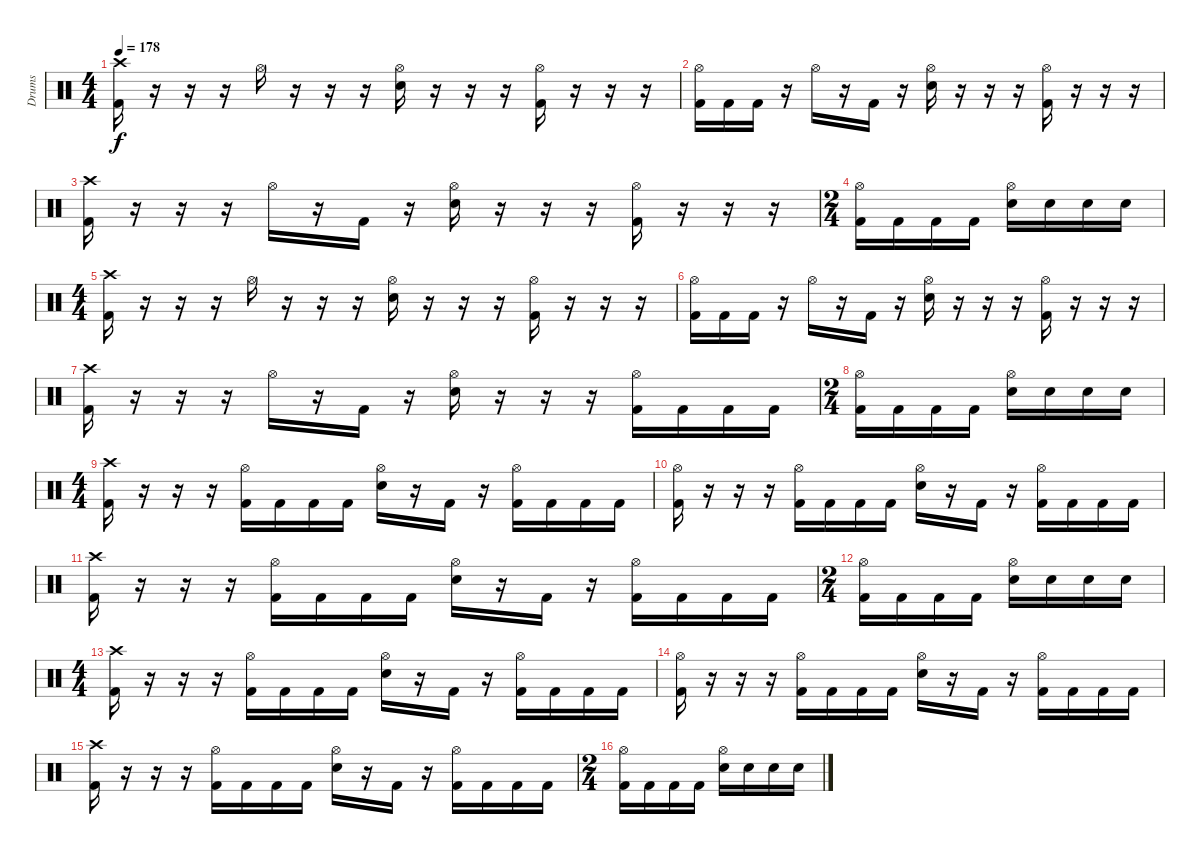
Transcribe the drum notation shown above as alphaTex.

\track ("Drums" "Drums") {instrument percussion}
\staff {score}
\articulation defaults
\ts (4 4)
\tempo 178
\clef neutral
\ks c
("Crash high (hit)" "Kick (hit) 2").16{dy f} r.16 r.16 r.16 "Hi-Hat (open)".16 r.16 r.16 r.16 ("Hi-Hat (open)" "Electric Snare (hit)").16 r.16 r.16 r.16 ("Hi-Hat (open)" "Kick (hit) 2").16 r.16 r.16 r.16 |
("Hi-Hat (open)" "Kick (hit) 2").16 "Kick (hit) 2".16 "Kick (hit) 2".16 r.16 "Hi-Hat (open)".16 r.16 "Kick (hit) 2".16 r.16 ("Hi-Hat (open)" "Electric Snare (hit)").16 r.16 r.16 r.16 ("Hi-Hat (open)" "Kick (hit) 2").16 r.16 r.16 r.16 |
("Crash high (hit)" "Kick (hit) 2").16 r.16 r.16 r.16 "Hi-Hat (open)".16 r.16 "Kick (hit) 2".16 r.16 ("Hi-Hat (open)" "Electric Snare (hit)").16 r.16 r.16 r.16 ("Hi-Hat (open)" "Kick (hit) 2").16 r.16 r.16 r.16 |
\ts (2 4)
("Hi-Hat (open)" "Kick (hit) 2").16 "Kick (hit) 2".16 "Kick (hit) 2".16 "Kick (hit) 2".16 ("Hi-Hat (open)" "Electric Snare (hit)").16 "Electric Snare (hit)".16 "Electric Snare (hit)".16 "Electric Snare (hit)".16 |
\ts (4 4)
("Crash high (hit)" "Kick (hit) 2").16 r.16 r.16 r.16 "Hi-Hat (open)".16 r.16 r.16 r.16 ("Hi-Hat (open)" "Electric Snare (hit)").16 r.16 r.16 r.16 ("Hi-Hat (open)" "Kick (hit) 2").16 r.16 r.16 r.16 |
("Hi-Hat (open)" "Kick (hit) 2").16 "Kick (hit) 2".16 "Kick (hit) 2".16 r.16 "Hi-Hat (open)".16 r.16 "Kick (hit) 2".16 r.16 ("Hi-Hat (open)" "Electric Snare (hit)").16 r.16 r.16 r.16 ("Hi-Hat (open)" "Kick (hit) 2").16 r.16 r.16 r.16 |
("Crash high (hit)" "Kick (hit) 2").16 r.16 r.16 r.16 "Hi-Hat (open)".16 r.16 "Kick (hit) 2".16 r.16 ("Hi-Hat (open)" "Electric Snare (hit)").16 r.16 r.16 r.16 ("Hi-Hat (open)" "Kick (hit) 2").16 "Kick (hit) 2".16 "Kick (hit) 2".16 "Kick (hit) 2".16 |
\ts (2 4)
("Hi-Hat (open)" "Kick (hit) 2").16 "Kick (hit) 2".16 "Kick (hit) 2".16 "Kick (hit) 2".16 ("Hi-Hat (open)" "Electric Snare (hit)").16 "Electric Snare (hit)".16 "Electric Snare (hit)".16 "Electric Snare (hit)".16 |
\ts (4 4)
("Crash high (hit)" "Kick (hit) 2").16 r.16 r.16 r.16 ("Hi-Hat (open)" "Kick (hit) 2").16 "Kick (hit) 2".16 "Kick (hit) 2".16 "Kick (hit) 2".16 ("Hi-Hat (open)" "Electric Snare (hit)").16 r.16 "Kick (hit) 2".16 r.16 ("Hi-Hat (open)" "Kick (hit) 2").16 "Kick (hit) 2".16 "Kick (hit) 2".16 "Kick (hit) 2".16 |
("Hi-Hat (open)" "Kick (hit) 2").16 r.16 r.16 r.16 ("Hi-Hat (open)" "Kick (hit) 2").16 "Kick (hit) 2".16 "Kick (hit) 2".16 "Kick (hit) 2".16 ("Hi-Hat (open)" "Electric Snare (hit)").16 r.16 "Kick (hit) 2".16 r.16 ("Hi-Hat (open)" "Kick (hit) 2").16 "Kick (hit) 2".16 "Kick (hit) 2".16 "Kick (hit) 2".16 |
("Crash high (hit)" "Kick (hit) 2").16 r.16 r.16 r.16 ("Hi-Hat (open)" "Kick (hit) 2").16 "Kick (hit) 2".16 "Kick (hit) 2".16 "Kick (hit) 2".16 ("Hi-Hat (open)" "Electric Snare (hit)").16 r.16 "Kick (hit) 2".16 r.16 ("Hi-Hat (open)" "Kick (hit) 2").16 "Kick (hit) 2".16 "Kick (hit) 2".16 "Kick (hit) 2".16 |
\ts (2 4)
("Hi-Hat (open)" "Kick (hit) 2").16 "Kick (hit) 2".16 "Kick (hit) 2".16 "Kick (hit) 2".16 ("Hi-Hat (open)" "Electric Snare (hit)").16 "Electric Snare (hit)".16 "Electric Snare (hit)".16 "Electric Snare (hit)".16 |
\ts (4 4)
("Crash high (hit)" "Kick (hit) 2").16 r.16 r.16 r.16 ("Hi-Hat (open)" "Kick (hit) 2").16 "Kick (hit) 2".16 "Kick (hit) 2".16 "Kick (hit) 2".16 ("Hi-Hat (open)" "Electric Snare (hit)").16 r.16 "Kick (hit) 2".16 r.16 ("Hi-Hat (open)" "Kick (hit) 2").16 "Kick (hit) 2".16 "Kick (hit) 2".16 "Kick (hit) 2".16 |
("Hi-Hat (open)" "Kick (hit) 2").16 r.16 r.16 r.16 ("Hi-Hat (open)" "Kick (hit) 2").16 "Kick (hit) 2".16 "Kick (hit) 2".16 "Kick (hit) 2".16 ("Hi-Hat (open)" "Electric Snare (hit)").16 r.16 "Kick (hit) 2".16 r.16 ("Hi-Hat (open)" "Kick (hit) 2").16 "Kick (hit) 2".16 "Kick (hit) 2".16 "Kick (hit) 2".16 |
("Crash high (hit)" "Kick (hit) 2").16 r.16 r.16 r.16 ("Hi-Hat (open)" "Kick (hit) 2").16 "Kick (hit) 2".16 "Kick (hit) 2".16 "Kick (hit) 2".16 ("Hi-Hat (open)" "Electric Snare (hit)").16 r.16 "Kick (hit) 2".16 r.16 ("Hi-Hat (open)" "Kick (hit) 2").16 "Kick (hit) 2".16 "Kick (hit) 2".16 "Kick (hit) 2".16 |
\ts (2 4)
("Hi-Hat (open)" "Kick (hit) 2").16 "Kick (hit) 2".16 "Kick (hit) 2".16 "Kick (hit) 2".16 ("Hi-Hat (open)" "Electric Snare (hit)").16 "Electric Snare (hit)".16 "Electric Snare (hit)".16 "Electric Snare (hit)".16
